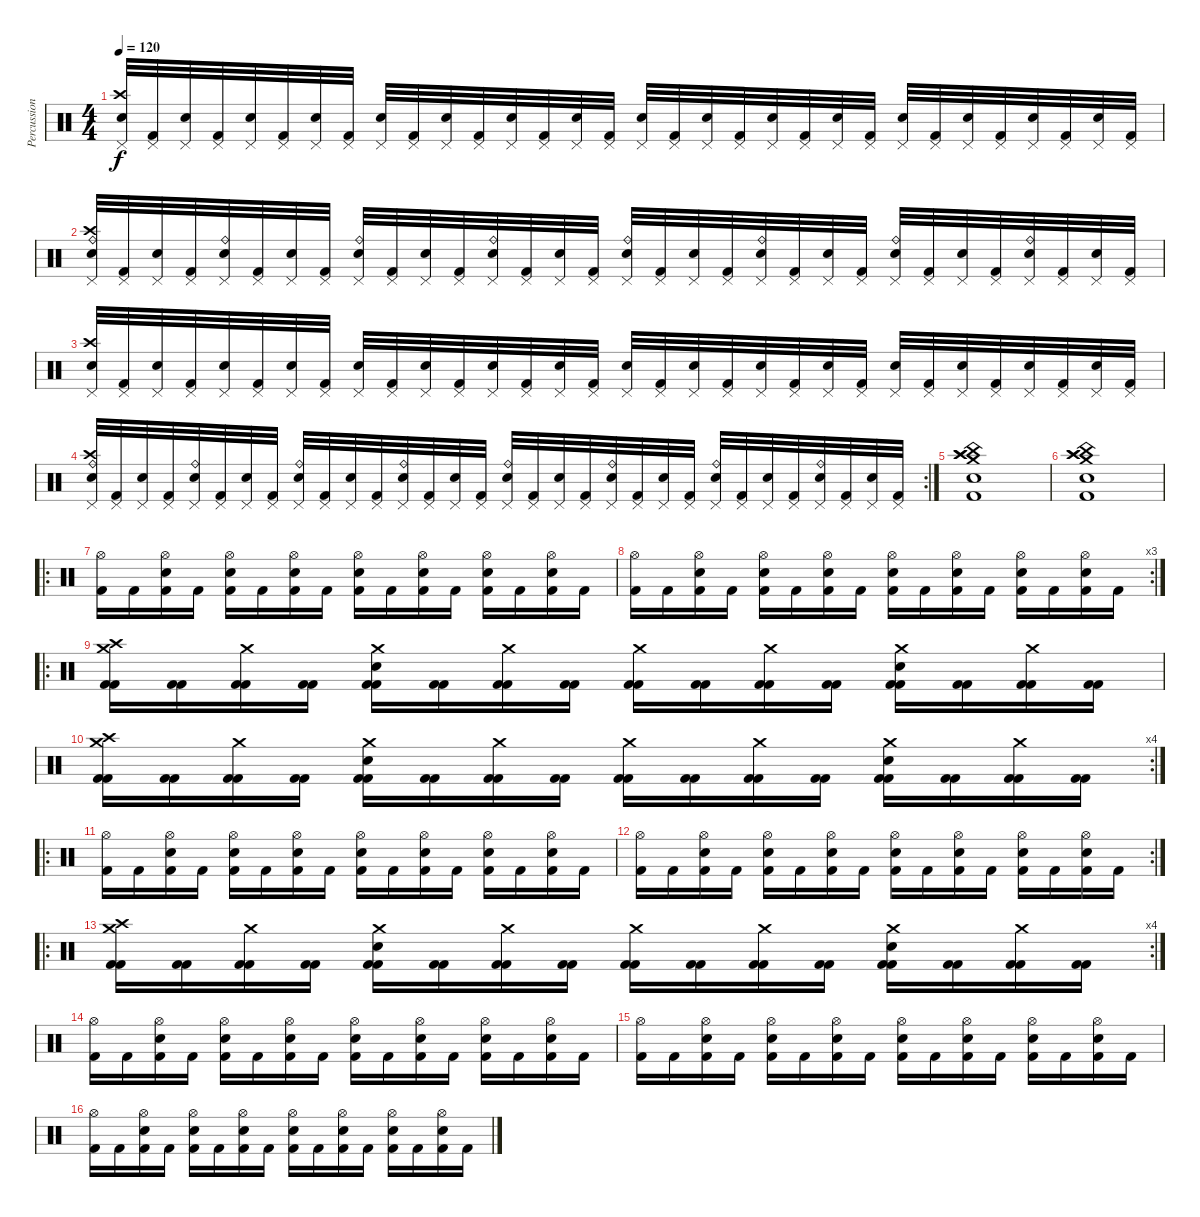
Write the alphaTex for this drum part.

\track ("Percussions" "Percussion") {instrument percussion}
\staff {score}
\articulation defaults
\ts (4 4)
\tempo 120
\clef neutral
\ks c
("Pedal Hi-Hat (hit)" "Crash high (hit)" "Electric Snare (hit)").32{dy f} ("Pedal Hi-Hat (hit)" "Kick (hit) 2").32 ("Pedal Hi-Hat (hit)" "Electric Snare (hit)").32 ("Pedal Hi-Hat (hit)" "Kick (hit) 2").32 ("Pedal Hi-Hat (hit)" "Electric Snare (hit)").32 ("Pedal Hi-Hat (hit)" "Kick (hit) 2").32 ("Pedal Hi-Hat (hit)" "Electric Snare (hit)").32 ("Pedal Hi-Hat (hit)" "Kick (hit) 2").32 ("Pedal Hi-Hat (hit)" "Electric Snare (hit)").32 ("Pedal Hi-Hat (hit)" "Kick (hit) 2").32 ("Pedal Hi-Hat (hit)" "Electric Snare (hit)").32 ("Pedal Hi-Hat (hit)" "Kick (hit) 2").32 ("Pedal Hi-Hat (hit)" "Electric Snare (hit)").32 ("Pedal Hi-Hat (hit)" "Kick (hit) 2").32 ("Pedal Hi-Hat (hit)" "Electric Snare (hit)").32 ("Pedal Hi-Hat (hit)" "Kick (hit) 2").32 ("Pedal Hi-Hat (hit)" "Electric Snare (hit)").32 ("Pedal Hi-Hat (hit)" "Kick (hit) 2").32 ("Pedal Hi-Hat (hit)" "Electric Snare (hit)").32 ("Pedal Hi-Hat (hit)" "Kick (hit) 2").32 ("Pedal Hi-Hat (hit)" "Electric Snare (hit)").32 ("Pedal Hi-Hat (hit)" "Kick (hit) 2").32 ("Pedal Hi-Hat (hit)" "Electric Snare (hit)").32 ("Pedal Hi-Hat (hit)" "Kick (hit) 2").32 ("Pedal Hi-Hat (hit)" "Electric Snare (hit)").32 ("Pedal Hi-Hat (hit)" "Kick (hit) 2").32 ("Pedal Hi-Hat (hit)" "Electric Snare (hit)").32 ("Pedal Hi-Hat (hit)" "Kick (hit) 2").32 ("Pedal Hi-Hat (hit)" "Electric Snare (hit)").32 ("Pedal Hi-Hat (hit)" "Kick (hit) 2").32 ("Pedal Hi-Hat (hit)" "Electric Snare (hit)").32 ("Pedal Hi-Hat (hit)" "Kick (hit) 2").32 |
("Ride (bell)" "Pedal Hi-Hat (hit)" "Crash high (hit)" "Electric Snare (hit)").32 ("Pedal Hi-Hat (hit)" "Kick (hit) 2").32 ("Pedal Hi-Hat (hit)" "Electric Snare (hit)").32 ("Pedal Hi-Hat (hit)" "Kick (hit) 2").32 ("Ride (bell)" "Pedal Hi-Hat (hit)" "Electric Snare (hit)").32 ("Pedal Hi-Hat (hit)" "Kick (hit) 2").32 ("Pedal Hi-Hat (hit)" "Electric Snare (hit)").32 ("Pedal Hi-Hat (hit)" "Kick (hit) 2").32 ("Ride (bell)" "Pedal Hi-Hat (hit)" "Electric Snare (hit)").32 ("Pedal Hi-Hat (hit)" "Kick (hit) 2").32 ("Pedal Hi-Hat (hit)" "Electric Snare (hit)").32 ("Pedal Hi-Hat (hit)" "Kick (hit) 2").32 ("Ride (bell)" "Pedal Hi-Hat (hit)" "Electric Snare (hit)").32 ("Pedal Hi-Hat (hit)" "Kick (hit) 2").32 ("Pedal Hi-Hat (hit)" "Electric Snare (hit)").32 ("Pedal Hi-Hat (hit)" "Kick (hit) 2").32 ("Ride (bell)" "Pedal Hi-Hat (hit)" "Electric Snare (hit)").32 ("Pedal Hi-Hat (hit)" "Kick (hit) 2").32 ("Pedal Hi-Hat (hit)" "Electric Snare (hit)").32 ("Pedal Hi-Hat (hit)" "Kick (hit) 2").32 ("Ride (bell)" "Pedal Hi-Hat (hit)" "Electric Snare (hit)").32 ("Pedal Hi-Hat (hit)" "Kick (hit) 2").32 ("Pedal Hi-Hat (hit)" "Electric Snare (hit)").32 ("Pedal Hi-Hat (hit)" "Kick (hit) 2").32 ("Ride (bell)" "Pedal Hi-Hat (hit)" "Electric Snare (hit)").32 ("Pedal Hi-Hat (hit)" "Kick (hit) 2").32 ("Pedal Hi-Hat (hit)" "Electric Snare (hit)").32 ("Pedal Hi-Hat (hit)" "Kick (hit) 2").32 ("Ride (bell)" "Pedal Hi-Hat (hit)" "Electric Snare (hit)").32 ("Pedal Hi-Hat (hit)" "Kick (hit) 2").32 ("Pedal Hi-Hat (hit)" "Electric Snare (hit)").32 ("Pedal Hi-Hat (hit)" "Kick (hit) 2").32 |
("Pedal Hi-Hat (hit)" "Crash high (hit)" "Electric Snare (hit)").32 ("Pedal Hi-Hat (hit)" "Kick (hit) 2").32 ("Pedal Hi-Hat (hit)" "Electric Snare (hit)").32 ("Pedal Hi-Hat (hit)" "Kick (hit) 2").32 ("Pedal Hi-Hat (hit)" "Electric Snare (hit)").32 ("Pedal Hi-Hat (hit)" "Kick (hit) 2").32 ("Pedal Hi-Hat (hit)" "Electric Snare (hit)").32 ("Pedal Hi-Hat (hit)" "Kick (hit) 2").32 ("Pedal Hi-Hat (hit)" "Electric Snare (hit)").32 ("Pedal Hi-Hat (hit)" "Kick (hit) 2").32 ("Pedal Hi-Hat (hit)" "Electric Snare (hit)").32 ("Pedal Hi-Hat (hit)" "Kick (hit) 2").32 ("Pedal Hi-Hat (hit)" "Electric Snare (hit)").32 ("Pedal Hi-Hat (hit)" "Kick (hit) 2").32 ("Pedal Hi-Hat (hit)" "Electric Snare (hit)").32 ("Pedal Hi-Hat (hit)" "Kick (hit) 2").32 ("Pedal Hi-Hat (hit)" "Electric Snare (hit)").32 ("Pedal Hi-Hat (hit)" "Kick (hit) 2").32 ("Pedal Hi-Hat (hit)" "Electric Snare (hit)").32 ("Pedal Hi-Hat (hit)" "Kick (hit) 2").32 ("Pedal Hi-Hat (hit)" "Electric Snare (hit)").32 ("Pedal Hi-Hat (hit)" "Kick (hit) 2").32 ("Pedal Hi-Hat (hit)" "Electric Snare (hit)").32 ("Pedal Hi-Hat (hit)" "Kick (hit) 2").32 ("Pedal Hi-Hat (hit)" "Electric Snare (hit)").32 ("Pedal Hi-Hat (hit)" "Kick (hit) 2").32 ("Pedal Hi-Hat (hit)" "Electric Snare (hit)").32 ("Pedal Hi-Hat (hit)" "Kick (hit) 2").32 ("Pedal Hi-Hat (hit)" "Electric Snare (hit)").32 ("Pedal Hi-Hat (hit)" "Kick (hit) 2").32 ("Pedal Hi-Hat (hit)" "Electric Snare (hit)").32 ("Pedal Hi-Hat (hit)" "Kick (hit) 2").32 |
\rc 2
("Ride (bell)" "Pedal Hi-Hat (hit)" "Crash high (hit)" "Electric Snare (hit)").32 ("Pedal Hi-Hat (hit)" "Kick (hit) 2").32 ("Pedal Hi-Hat (hit)" "Electric Snare (hit)").32 ("Pedal Hi-Hat (hit)" "Kick (hit) 2").32 ("Ride (bell)" "Pedal Hi-Hat (hit)" "Electric Snare (hit)").32 ("Pedal Hi-Hat (hit)" "Kick (hit) 2").32 ("Pedal Hi-Hat (hit)" "Electric Snare (hit)").32 ("Pedal Hi-Hat (hit)" "Kick (hit) 2").32 ("Ride (bell)" "Pedal Hi-Hat (hit)" "Electric Snare (hit)").32 ("Pedal Hi-Hat (hit)" "Kick (hit) 2").32 ("Pedal Hi-Hat (hit)" "Electric Snare (hit)").32 ("Pedal Hi-Hat (hit)" "Kick (hit) 2").32 ("Ride (bell)" "Pedal Hi-Hat (hit)" "Electric Snare (hit)").32 ("Pedal Hi-Hat (hit)" "Kick (hit) 2").32 ("Pedal Hi-Hat (hit)" "Electric Snare (hit)").32 ("Pedal Hi-Hat (hit)" "Kick (hit) 2").32 ("Ride (bell)" "Pedal Hi-Hat (hit)" "Electric Snare (hit)").32 ("Pedal Hi-Hat (hit)" "Kick (hit) 2").32 ("Pedal Hi-Hat (hit)" "Electric Snare (hit)").32 ("Pedal Hi-Hat (hit)" "Kick (hit) 2").32 ("Ride (bell)" "Pedal Hi-Hat (hit)" "Electric Snare (hit)").32 ("Pedal Hi-Hat (hit)" "Kick (hit) 2").32 ("Pedal Hi-Hat (hit)" "Electric Snare (hit)").32 ("Pedal Hi-Hat (hit)" "Kick (hit) 2").32 ("Ride (bell)" "Pedal Hi-Hat (hit)" "Electric Snare (hit)").32 ("Pedal Hi-Hat (hit)" "Kick (hit) 2").32 ("Pedal Hi-Hat (hit)" "Electric Snare (hit)").32 ("Pedal Hi-Hat (hit)" "Kick (hit) 2").32 ("Ride (bell)" "Pedal Hi-Hat (hit)" "Electric Snare (hit)").32 ("Pedal Hi-Hat (hit)" "Kick (hit) 2").32 ("Pedal Hi-Hat (hit)" "Electric Snare (hit)").32 ("Pedal Hi-Hat (hit)" "Kick (hit) 2").32 |
("Crash medium (hit)" "China (hit)" "Crash high (hit)" "Electric Snare (hit)" "Crash high (hit)" "Kick (hit) 2").1 |
("Crash medium (hit)" "China (hit)" "Crash high (hit)" "Electric Snare (hit)" "Crash high (hit)" "Kick (hit) 2").1 |
\ro
("Hi-Hat (open)" "Kick (hit) 2").16 "Kick (hit) 2".16 ("Hi-Hat (open)" "Electric Snare (hit)" "Kick (hit) 2").16 "Kick (hit) 2".16 ("Hi-Hat (open)" "Electric Snare (hit)" "Kick (hit) 2").16 "Kick (hit) 2".16 ("Hi-Hat (open)" "Electric Snare (hit)" "Kick (hit) 2").16 "Kick (hit) 2".16 ("Hi-Hat (open)" "Electric Snare (hit)" "Kick (hit) 2").16 "Kick (hit) 2".16 ("Hi-Hat (open)" "Electric Snare (hit)" "Kick (hit) 2").16 "Kick (hit) 2".16 ("Hi-Hat (open)" "Electric Snare (hit)" "Kick (hit) 2").16 "Kick (hit) 2".16 ("Hi-Hat (open)" "Electric Snare (hit)" "Kick (hit) 2").16 "Kick (hit) 2".16 |
\rc 3
("Hi-Hat (open)" "Kick (hit) 2").16 "Kick (hit) 2".16 ("Hi-Hat (open)" "Electric Snare (hit)" "Kick (hit) 2").16 "Kick (hit) 2".16 ("Hi-Hat (open)" "Electric Snare (hit)" "Kick (hit) 2").16 "Kick (hit) 2".16 ("Hi-Hat (open)" "Electric Snare (hit)" "Kick (hit) 2").16 "Kick (hit) 2".16 ("Hi-Hat (open)" "Electric Snare (hit)" "Kick (hit) 2").16 "Kick (hit) 2".16 ("Hi-Hat (open)" "Electric Snare (hit)" "Kick (hit) 2").16 "Kick (hit) 2".16 ("Hi-Hat (open)" "Electric Snare (hit)" "Kick (hit) 2").16 "Kick (hit) 2".16 ("Hi-Hat (open)" "Electric Snare (hit)" "Kick (hit) 2").16 "Kick (hit) 2".16 |
\ro
("Kick (hit) 2" "Crash medium (hit)" "Crash high (hit)" "Kick (hit) 2").16 ("Kick (hit) 2" "Kick (hit) 2").16 ("Kick (hit) 2" "Crash medium (hit)" "Kick (hit) 2").16 ("Kick (hit) 2" "Kick (hit) 2").16 ("Kick (hit) 2" "Crash medium (hit)" "Electric Snare (hit)" "Kick (hit) 2").16 ("Kick (hit) 2" "Kick (hit) 2").16 ("Kick (hit) 2" "Crash medium (hit)" "Kick (hit) 2").16 ("Kick (hit) 2" "Kick (hit) 2").16 ("Kick (hit) 2" "Crash medium (hit)" "Kick (hit) 2").16 ("Kick (hit) 2" "Kick (hit) 2").16 ("Kick (hit) 2" "Crash medium (hit)" "Kick (hit) 2").16 ("Kick (hit) 2" "Kick (hit) 2").16 ("Kick (hit) 2" "Crash medium (hit)" "Electric Snare (hit)" "Kick (hit) 2").16 ("Kick (hit) 2" "Kick (hit) 2").16 ("Kick (hit) 2" "Crash medium (hit)" "Kick (hit) 2").16 ("Kick (hit) 2" "Kick (hit) 2").16 |
\rc 4
("Kick (hit) 2" "Crash medium (hit)" "Crash high (hit)" "Kick (hit) 2").16 ("Kick (hit) 2" "Kick (hit) 2").16 ("Kick (hit) 2" "Crash medium (hit)" "Kick (hit) 2").16 ("Kick (hit) 2" "Kick (hit) 2").16 ("Kick (hit) 2" "Crash medium (hit)" "Electric Snare (hit)" "Kick (hit) 2").16 ("Kick (hit) 2" "Kick (hit) 2").16 ("Kick (hit) 2" "Crash medium (hit)" "Kick (hit) 2").16 ("Kick (hit) 2" "Kick (hit) 2").16 ("Kick (hit) 2" "Crash medium (hit)" "Kick (hit) 2").16 ("Kick (hit) 2" "Kick (hit) 2").16 ("Kick (hit) 2" "Crash medium (hit)" "Kick (hit) 2").16 ("Kick (hit) 2" "Kick (hit) 2").16 ("Kick (hit) 2" "Crash medium (hit)" "Electric Snare (hit)" "Kick (hit) 2").16 ("Kick (hit) 2" "Kick (hit) 2").16 ("Kick (hit) 2" "Crash medium (hit)" "Kick (hit) 2").16 ("Kick (hit) 2" "Kick (hit) 2").16 |
\ro
("Hi-Hat (open)" "Kick (hit) 2").16 "Kick (hit) 2".16 ("Hi-Hat (open)" "Electric Snare (hit)" "Kick (hit) 2").16 "Kick (hit) 2".16 ("Hi-Hat (open)" "Electric Snare (hit)" "Kick (hit) 2").16 "Kick (hit) 2".16 ("Hi-Hat (open)" "Electric Snare (hit)" "Kick (hit) 2").16 "Kick (hit) 2".16 ("Hi-Hat (open)" "Electric Snare (hit)" "Kick (hit) 2").16 "Kick (hit) 2".16 ("Hi-Hat (open)" "Electric Snare (hit)" "Kick (hit) 2").16 "Kick (hit) 2".16 ("Hi-Hat (open)" "Electric Snare (hit)" "Kick (hit) 2").16 "Kick (hit) 2".16 ("Hi-Hat (open)" "Electric Snare (hit)" "Kick (hit) 2").16 "Kick (hit) 2".16 |
\rc 2
("Hi-Hat (open)" "Kick (hit) 2").16 "Kick (hit) 2".16 ("Hi-Hat (open)" "Electric Snare (hit)" "Kick (hit) 2").16 "Kick (hit) 2".16 ("Hi-Hat (open)" "Electric Snare (hit)" "Kick (hit) 2").16 "Kick (hit) 2".16 ("Hi-Hat (open)" "Electric Snare (hit)" "Kick (hit) 2").16 "Kick (hit) 2".16 ("Hi-Hat (open)" "Electric Snare (hit)" "Kick (hit) 2").16 "Kick (hit) 2".16 ("Hi-Hat (open)" "Electric Snare (hit)" "Kick (hit) 2").16 "Kick (hit) 2".16 ("Hi-Hat (open)" "Electric Snare (hit)" "Kick (hit) 2").16 "Kick (hit) 2".16 ("Hi-Hat (open)" "Electric Snare (hit)" "Kick (hit) 2").16 "Kick (hit) 2".16 |
\ro
\rc 4
("Kick (hit) 2" "Crash medium (hit)" "Crash high (hit)" "Kick (hit) 2").16 ("Kick (hit) 2" "Kick (hit) 2").16 ("Kick (hit) 2" "Crash medium (hit)" "Kick (hit) 2").16 ("Kick (hit) 2" "Kick (hit) 2").16 ("Kick (hit) 2" "Crash medium (hit)" "Electric Snare (hit)" "Kick (hit) 2").16 ("Kick (hit) 2" "Kick (hit) 2").16 ("Kick (hit) 2" "Crash medium (hit)" "Kick (hit) 2").16 ("Kick (hit) 2" "Kick (hit) 2").16 ("Kick (hit) 2" "Crash medium (hit)" "Kick (hit) 2").16 ("Kick (hit) 2" "Kick (hit) 2").16 ("Kick (hit) 2" "Crash medium (hit)" "Kick (hit) 2").16 ("Kick (hit) 2" "Kick (hit) 2").16 ("Kick (hit) 2" "Crash medium (hit)" "Electric Snare (hit)" "Kick (hit) 2").16 ("Kick (hit) 2" "Kick (hit) 2").16 ("Kick (hit) 2" "Crash medium (hit)" "Kick (hit) 2").16 ("Kick (hit) 2" "Kick (hit) 2").16 |
("Hi-Hat (open)" "Kick (hit) 2").16{volume 0} "Kick (hit) 2".16 ("Hi-Hat (open)" "Electric Snare (hit)" "Kick (hit) 2").16 "Kick (hit) 2".16 ("Hi-Hat (open)" "Electric Snare (hit)" "Kick (hit) 2").16 "Kick (hit) 2".16 ("Hi-Hat (open)" "Electric Snare (hit)" "Kick (hit) 2").16 "Kick (hit) 2".16 ("Hi-Hat (open)" "Electric Snare (hit)" "Kick (hit) 2").16 "Kick (hit) 2".16 ("Hi-Hat (open)" "Electric Snare (hit)" "Kick (hit) 2").16 "Kick (hit) 2".16 ("Hi-Hat (open)" "Electric Snare (hit)" "Kick (hit) 2").16 "Kick (hit) 2".16 ("Hi-Hat (open)" "Electric Snare (hit)" "Kick (hit) 2").16 "Kick (hit) 2".16 |
("Hi-Hat (open)" "Kick (hit) 2").16 "Kick (hit) 2".16 ("Hi-Hat (open)" "Electric Snare (hit)" "Kick (hit) 2").16 "Kick (hit) 2".16 ("Hi-Hat (open)" "Electric Snare (hit)" "Kick (hit) 2").16 "Kick (hit) 2".16 ("Hi-Hat (open)" "Electric Snare (hit)" "Kick (hit) 2").16 "Kick (hit) 2".16 ("Hi-Hat (open)" "Electric Snare (hit)" "Kick (hit) 2").16 "Kick (hit) 2".16 ("Hi-Hat (open)" "Electric Snare (hit)" "Kick (hit) 2").16 "Kick (hit) 2".16 ("Hi-Hat (open)" "Electric Snare (hit)" "Kick (hit) 2").16 "Kick (hit) 2".16 ("Hi-Hat (open)" "Electric Snare (hit)" "Kick (hit) 2").16 "Kick (hit) 2".16 |
("Hi-Hat (open)" "Kick (hit) 2").16 "Kick (hit) 2".16 ("Hi-Hat (open)" "Electric Snare (hit)" "Kick (hit) 2").16 "Kick (hit) 2".16 ("Hi-Hat (open)" "Electric Snare (hit)" "Kick (hit) 2").16 "Kick (hit) 2".16 ("Hi-Hat (open)" "Electric Snare (hit)" "Kick (hit) 2").16 "Kick (hit) 2".16 ("Hi-Hat (open)" "Electric Snare (hit)" "Kick (hit) 2").16 "Kick (hit) 2".16 ("Hi-Hat (open)" "Electric Snare (hit)" "Kick (hit) 2").16 "Kick (hit) 2".16 ("Hi-Hat (open)" "Electric Snare (hit)" "Kick (hit) 2").16 "Kick (hit) 2".16 ("Hi-Hat (open)" "Electric Snare (hit)" "Kick (hit) 2").16 "Kick (hit) 2".16
